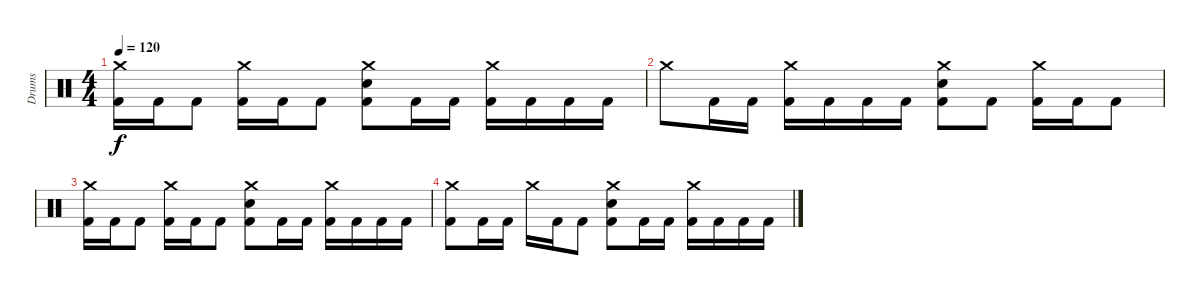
\track ("Drums" "Drums") {instrument percussion}
\staff {score}
\articulation defaults
\ts (4 4)
\tempo 120
\clef neutral
\ks c
("Crash medium (hit)" "Kick (hit) 2").16{dy f} "Kick (hit) 2".16 "Kick (hit) 2".8 ("Crash medium (hit)" "Kick (hit) 2").16 "Kick (hit) 2".16 "Kick (hit) 2".8 ("Crash medium (hit)" "Electric Snare (hit)" "Kick (hit) 2").8 "Kick (hit) 2".16 "Kick (hit) 2".16 ("Crash medium (hit)" "Kick (hit) 2").16 "Kick (hit) 2".16 "Kick (hit) 2".16 "Kick (hit) 2".16 |
"Crash medium (hit)".8 "Kick (hit) 2".16 "Kick (hit) 2".16 ("Crash medium (hit)" "Kick (hit) 2").16 "Kick (hit) 2".16 "Kick (hit) 2".16 "Kick (hit) 2".16 ("Crash medium (hit)" "Electric Snare (hit)" "Kick (hit) 2").8 "Kick (hit) 2".8 ("Crash medium (hit)" "Kick (hit) 2").16 "Kick (hit) 2".16 "Kick (hit) 2".8 |
("Crash medium (hit)" "Kick (hit) 2").16 "Kick (hit) 2".16 "Kick (hit) 2".8 ("Crash medium (hit)" "Kick (hit) 2").16 "Kick (hit) 2".16 "Kick (hit) 2".8 ("Crash medium (hit)" "Electric Snare (hit)" "Kick (hit) 2").8 "Kick (hit) 2".16 "Kick (hit) 2".16 ("Crash medium (hit)" "Kick (hit) 2").16 "Kick (hit) 2".16 "Kick (hit) 2".16 "Kick (hit) 2".16 |
("Crash medium (hit)" "Kick (hit) 2").8 "Kick (hit) 2".16 "Kick (hit) 2".16 "Crash medium (hit)".16 "Kick (hit) 2".16 "Kick (hit) 2".8 ("Crash medium (hit)" "Electric Snare (hit)" "Kick (hit) 2").8 "Kick (hit) 2".16 "Kick (hit) 2".16 ("Crash medium (hit)" "Kick (hit) 2").16 "Kick (hit) 2".16 "Kick (hit) 2".16 "Kick (hit) 2".16
